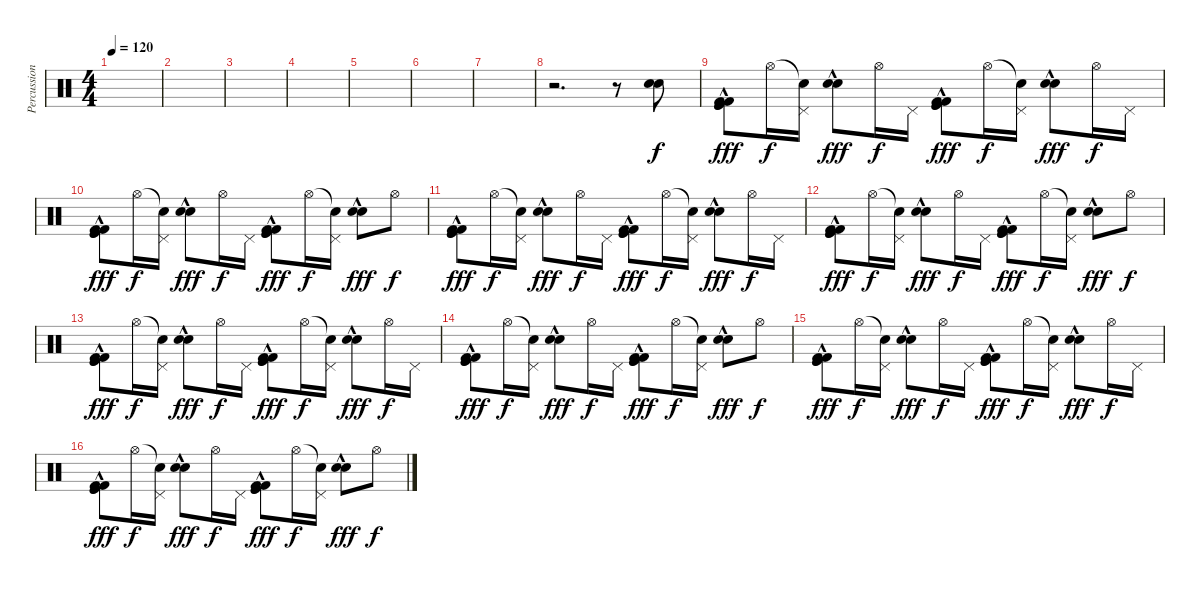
\track ("Percussion" "Percussion") {instrument percussion}
\staff {score}
\articulation defaults
\ts (4 4)
\tempo 120
\clef neutral
\ks c
|
|
|
|
|
|
|
r.2{d} r.8 ("Electric Snare (hit)" "Snare (hit) 2").8 |
("Kick (hit)" "Kick (hit) 2" "Kick (hit)"{hac} "Kick (hit) 2"{hac}).8{dy fff} "Hi-Hat (open)".16{dy f} ("Snare (hit)"{t} "Pedal Hi-Hat (hit)").16 ("Electric Snare (hit)"{hac} "Snare (hit) 2"{hac}).8{dy fff} "Hi-Hat (open)".16{dy f} "Pedal Hi-Hat (hit)".16 ("Kick (hit)" "Kick (hit) 2" "Kick (hit)"{hac} "Kick (hit) 2"{hac}).8{dy fff} "Hi-Hat (open)".16{dy f} ("Snare (hit)"{t} "Pedal Hi-Hat (hit)").16 ("Electric Snare (hit)"{hac} "Snare (hit) 2"{hac}).8{dy fff} "Hi-Hat (open)".16{dy f} "Pedal Hi-Hat (hit)".16 |
("Kick (hit)" "Kick (hit) 2" "Kick (hit)"{hac} "Kick (hit) 2"{hac}).8{dy fff} "Hi-Hat (open)".16{dy f} ("Snare (hit)"{t} "Pedal Hi-Hat (hit)").16 ("Electric Snare (hit)"{hac} "Snare (hit) 2"{hac}).8{dy fff} "Hi-Hat (open)".16{dy f} "Pedal Hi-Hat (hit)".16 ("Kick (hit)" "Kick (hit) 2" "Kick (hit)"{hac} "Kick (hit) 2"{hac}).8{dy fff} "Hi-Hat (open)".16{dy f} ("Snare (hit)"{t} "Pedal Hi-Hat (hit)").16 ("Electric Snare (hit)"{hac} "Snare (hit) 2"{hac}).8{dy fff} "Hi-Hat (open)".8{dy f} |
("Kick (hit)" "Kick (hit) 2" "Kick (hit)"{hac} "Kick (hit) 2"{hac}).8{dy fff} "Hi-Hat (open)".16{dy f} ("Snare (hit)"{t} "Pedal Hi-Hat (hit)").16 ("Electric Snare (hit)"{hac} "Snare (hit) 2"{hac}).8{dy fff} "Hi-Hat (open)".16{dy f} "Pedal Hi-Hat (hit)".16 ("Kick (hit)" "Kick (hit) 2" "Kick (hit)"{hac} "Kick (hit) 2"{hac}).8{dy fff} "Hi-Hat (open)".16{dy f} ("Snare (hit)"{t} "Pedal Hi-Hat (hit)").16 ("Electric Snare (hit)"{hac} "Snare (hit) 2"{hac}).8{dy fff} "Hi-Hat (open)".16{dy f} "Pedal Hi-Hat (hit)".16 |
("Kick (hit)" "Kick (hit) 2" "Kick (hit)"{hac} "Kick (hit) 2"{hac}).8{dy fff} "Hi-Hat (open)".16{dy f} ("Snare (hit)"{t} "Pedal Hi-Hat (hit)").16 ("Electric Snare (hit)"{hac} "Snare (hit) 2"{hac}).8{dy fff} "Hi-Hat (open)".16{dy f} "Pedal Hi-Hat (hit)".16 ("Kick (hit)" "Kick (hit) 2" "Kick (hit)"{hac} "Kick (hit) 2"{hac}).8{dy fff} "Hi-Hat (open)".16{dy f} ("Snare (hit)"{t} "Pedal Hi-Hat (hit)").16 ("Electric Snare (hit)"{hac} "Snare (hit) 2"{hac}).8{dy fff} "Hi-Hat (open)".8{dy f} |
("Kick (hit)" "Kick (hit) 2" "Kick (hit)"{hac} "Kick (hit) 2"{hac}).8{dy fff} "Hi-Hat (open)".16{dy f} ("Snare (hit)"{t} "Pedal Hi-Hat (hit)").16 ("Electric Snare (hit)"{hac} "Snare (hit) 2"{hac}).8{dy fff} "Hi-Hat (open)".16{dy f} "Pedal Hi-Hat (hit)".16 ("Kick (hit)" "Kick (hit) 2" "Kick (hit)"{hac} "Kick (hit) 2"{hac}).8{dy fff} "Hi-Hat (open)".16{dy f} ("Snare (hit)"{t} "Pedal Hi-Hat (hit)").16 ("Electric Snare (hit)"{hac} "Snare (hit) 2"{hac}).8{dy fff} "Hi-Hat (open)".16{dy f} "Pedal Hi-Hat (hit)".16 |
("Kick (hit)" "Kick (hit) 2" "Kick (hit)"{hac} "Kick (hit) 2"{hac}).8{dy fff} "Hi-Hat (open)".16{dy f} ("Snare (hit)"{t} "Pedal Hi-Hat (hit)").16 ("Electric Snare (hit)"{hac} "Snare (hit) 2"{hac}).8{dy fff} "Hi-Hat (open)".16{dy f} "Pedal Hi-Hat (hit)".16 ("Kick (hit)" "Kick (hit) 2" "Kick (hit)"{hac} "Kick (hit) 2"{hac}).8{dy fff} "Hi-Hat (open)".16{dy f} ("Snare (hit)"{t} "Pedal Hi-Hat (hit)").16 ("Electric Snare (hit)"{hac} "Snare (hit) 2"{hac}).8{dy fff} "Hi-Hat (open)".8{dy f} |
("Kick (hit)" "Kick (hit) 2" "Kick (hit)"{hac} "Kick (hit) 2"{hac}).8{dy fff} "Hi-Hat (open)".16{dy f} ("Snare (hit)"{t} "Pedal Hi-Hat (hit)").16 ("Electric Snare (hit)"{hac} "Snare (hit) 2"{hac}).8{dy fff} "Hi-Hat (open)".16{dy f} "Pedal Hi-Hat (hit)".16 ("Kick (hit)" "Kick (hit) 2" "Kick (hit)"{hac} "Kick (hit) 2"{hac}).8{dy fff} "Hi-Hat (open)".16{dy f} ("Snare (hit)"{t} "Pedal Hi-Hat (hit)").16 ("Electric Snare (hit)"{hac} "Snare (hit) 2"{hac}).8{dy fff} "Hi-Hat (open)".16{dy f} "Pedal Hi-Hat (hit)".16 |
("Kick (hit)" "Kick (hit) 2" "Kick (hit)"{hac} "Kick (hit) 2"{hac}).8{dy fff} "Hi-Hat (open)".16{dy f} ("Snare (hit)"{t} "Pedal Hi-Hat (hit)").16 ("Electric Snare (hit)"{hac} "Snare (hit) 2"{hac}).8{dy fff} "Hi-Hat (open)".16{dy f} "Pedal Hi-Hat (hit)".16 ("Kick (hit)" "Kick (hit) 2" "Kick (hit)"{hac} "Kick (hit) 2"{hac}).8{dy fff} "Hi-Hat (open)".16{dy f} ("Snare (hit)"{t} "Pedal Hi-Hat (hit)").16 ("Electric Snare (hit)"{hac} "Snare (hit) 2"{hac}).8{dy fff} "Hi-Hat (open)".8{dy f}
